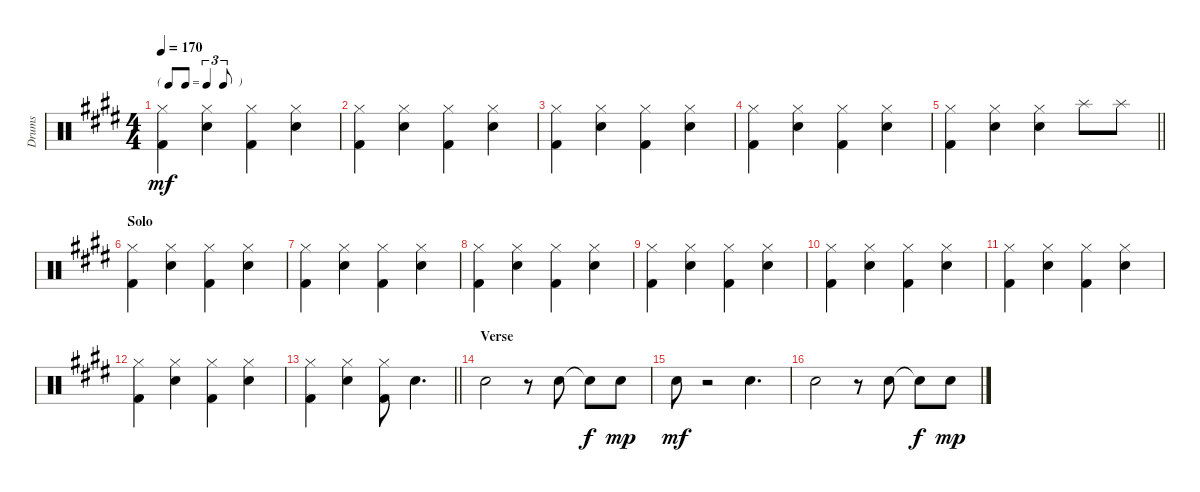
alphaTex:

\track ("Drums" "Drums") {instrument percussion}
\staff {score}
\articulation defaults
\ts (4 4)
\tf triplet8th
\tempo 170
\clef neutral
\ks e
("Kick (hit) 2" "Hi-Hat (closed)").4{dy mf} ("Snare (hit) 2" "Hi-Hat (closed)").4 ("Kick (hit) 2" "Hi-Hat (closed)").4 ("Snare (hit) 2" "Hi-Hat (closed)").4 |
("Kick (hit) 2" "Hi-Hat (closed)").4 ("Snare (hit) 2" "Hi-Hat (closed)").4 ("Kick (hit) 2" "Hi-Hat (closed)").4 ("Snare (hit) 2" "Hi-Hat (closed)").4 |
("Kick (hit) 2" "Hi-Hat (closed)").4 ("Snare (hit) 2" "Hi-Hat (closed)").4 ("Kick (hit) 2" "Hi-Hat (closed)").4 ("Snare (hit) 2" "Hi-Hat (closed)").4 |
("Kick (hit) 2" "Hi-Hat (closed)").4 ("Snare (hit) 2" "Hi-Hat (closed)").4 ("Kick (hit) 2" "Hi-Hat (closed)").4 ("Snare (hit) 2" "Hi-Hat (closed)").4 |
\barLineRight lightlight
("Kick (hit) 2" "Hi-Hat (closed)").4 ("Snare (hit) 2" "Hi-Hat (closed)").4 ("Snare (hit) 2" "Hi-Hat (closed)").4 "Splash (hit)".8 "Splash (hit)".8 |
\section ("" "Solo")
("Kick (hit) 2" "Hi-Hat (closed)").4 ("Snare (hit) 2" "Hi-Hat (closed)").4 ("Kick (hit) 2" "Hi-Hat (closed)").4 ("Snare (hit) 2" "Hi-Hat (closed)").4 |
("Kick (hit) 2" "Hi-Hat (closed)").4 ("Snare (hit) 2" "Hi-Hat (closed)").4 ("Kick (hit) 2" "Hi-Hat (closed)").4 ("Snare (hit) 2" "Hi-Hat (closed)").4 |
("Kick (hit) 2" "Hi-Hat (closed)").4 ("Snare (hit) 2" "Hi-Hat (closed)").4 ("Kick (hit) 2" "Hi-Hat (closed)").4 ("Snare (hit) 2" "Hi-Hat (closed)").4 |
("Kick (hit) 2" "Hi-Hat (closed)").4 ("Snare (hit) 2" "Hi-Hat (closed)").4 ("Kick (hit) 2" "Hi-Hat (closed)").4 ("Snare (hit) 2" "Hi-Hat (closed)").4 |
("Kick (hit) 2" "Hi-Hat (closed)").4 ("Snare (hit) 2" "Hi-Hat (closed)").4 ("Kick (hit) 2" "Hi-Hat (closed)").4 ("Snare (hit) 2" "Hi-Hat (closed)").4 |
("Kick (hit) 2" "Hi-Hat (closed)").4 ("Snare (hit) 2" "Hi-Hat (closed)").4 ("Kick (hit) 2" "Hi-Hat (closed)").4 ("Snare (hit) 2" "Hi-Hat (closed)").4 |
("Kick (hit) 2" "Hi-Hat (closed)").4 ("Snare (hit) 2" "Hi-Hat (closed)").4 ("Kick (hit) 2" "Hi-Hat (closed)").4 ("Snare (hit) 2" "Hi-Hat (closed)").4 |
\barLineRight lightlight
("Kick (hit) 2" "Hi-Hat (closed)").4 ("Snare (hit) 2" "Hi-Hat (closed)").4 ("Kick (hit) 2" "Hi-Hat (closed)").8 "Snare (hit) 2".4{d} |
\section ("" "Verse")
"Snare (hit) 2".2 r.8 "Snare (hit) 2".8 "Snare (hit) 2"{t}.8{dy f} "Snare (hit) 2".8{dy mp} |
"Snare (hit) 2".8{dy mf} r.2 "Snare (hit) 2".4{d} |
"Snare (hit) 2".2 r.8 "Snare (hit) 2".8 "Snare (hit) 2"{t}.8{dy f} "Snare (hit) 2".8{dy mp}
